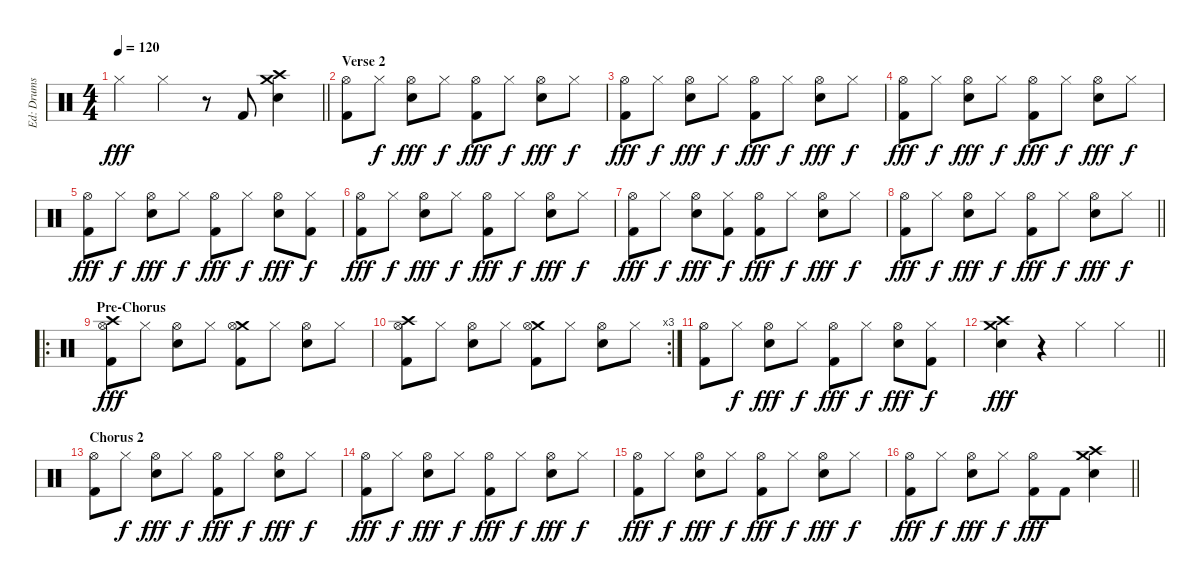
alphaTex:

\track ("Ed: Drums" "Ed: Drums") {instrument percussion}
\staff {score}
\articulation defaults
\ts (4 4)
\tempo 120
\clef neutral
\barLineRight lightlight
\ks c "Hi-Hat (closed)".4{dy fff} "Hi-Hat (closed)".4
r.8 "Kick (hit) 2".8 ("Crash medium (hit)" "Crash high (hit)" "Snare (hit) 2").4 |
\section ("" "Verse 2")
("Hi-Hat (open)" "Kick (hit) 2").8 "Hi-Hat (closed)".8{dy f} ("Hi-Hat (open)" "Electric Snare (hit)").8{dy fff} "Hi-Hat (closed)".8{dy f} ("Hi-Hat (open)" "Kick (hit) 2").8{dy fff} "Hi-Hat (closed)".8{dy f} ("Hi-Hat (open)" "Electric Snare (hit)").8{dy fff} "Hi-Hat (closed)".8{dy f} |
("Hi-Hat (open)" "Kick (hit) 2").8{dy fff} "Hi-Hat (closed)".8{dy f} ("Hi-Hat (open)" "Electric Snare (hit)").8{dy fff} "Hi-Hat (closed)".8{dy f} ("Hi-Hat (open)" "Kick (hit) 2").8{dy fff} "Hi-Hat (closed)".8{dy f} ("Hi-Hat (open)" "Electric Snare (hit)").8{dy fff} "Hi-Hat (closed)".8{dy f} |
("Hi-Hat (open)" "Kick (hit) 2").8{dy fff} "Hi-Hat (closed)".8{dy f} ("Hi-Hat (open)" "Electric Snare (hit)").8{dy fff} "Hi-Hat (closed)".8{dy f} ("Hi-Hat (open)" "Kick (hit) 2").8{dy fff} "Hi-Hat (closed)".8{dy f} ("Hi-Hat (open)" "Electric Snare (hit)").8{dy fff} "Hi-Hat (closed)".8{dy f} |
("Hi-Hat (open)" "Kick (hit) 2").8{dy fff} "Hi-Hat (closed)".8{dy f} ("Hi-Hat (open)" "Electric Snare (hit)").8{dy fff} "Hi-Hat (closed)".8{dy f} ("Hi-Hat (open)" "Kick (hit) 2").8{dy fff} "Hi-Hat (closed)".8{dy f} ("Hi-Hat (open)" "Electric Snare (hit)").8{dy fff} ("Hi-Hat (closed)" "Kick (hit) 2").8{dy f} |
("Hi-Hat (open)" "Kick (hit) 2").8{dy fff} "Hi-Hat (closed)".8{dy f} ("Hi-Hat (open)" "Electric Snare (hit)").8{dy fff} "Hi-Hat (closed)".8{dy f} ("Hi-Hat (open)" "Kick (hit) 2").8{dy fff} "Hi-Hat (closed)".8{dy f} ("Hi-Hat (open)" "Electric Snare (hit)").8{dy fff} "Hi-Hat (closed)".8{dy f} |
("Hi-Hat (open)" "Kick (hit) 2").8{dy fff} "Hi-Hat (closed)".8{dy f} ("Hi-Hat (open)" "Electric Snare (hit)").8{dy fff} ("Hi-Hat (closed)" "Kick (hit) 2").8{dy f} ("Hi-Hat (open)" "Kick (hit) 2").8{dy fff} "Hi-Hat (closed)".8{dy f} ("Hi-Hat (open)" "Electric Snare (hit)").8{dy fff} "Hi-Hat (closed)".8{dy f} |
\barLineRight lightlight
("Hi-Hat (open)" "Kick (hit) 2").8{dy fff} "Hi-Hat (closed)".8{dy f} ("Hi-Hat (open)" "Electric Snare (hit)").8{dy fff} "Hi-Hat (closed)".8{dy f} ("Hi-Hat (open)" "Kick (hit) 2").8{dy fff} "Hi-Hat (closed)".8{dy f} ("Hi-Hat (open)" "Electric Snare (hit)").8{dy fff} "Hi-Hat (closed)".8{dy f} |
\ro
\section ("" "Pre-Chorus")
("Crash high (hit)" "Hi-Hat (open)" "Kick (hit) 2").8{dy fff} "Hi-Hat (closed)".8 ("Hi-Hat (open)" "Electric Snare (hit)").8 "Hi-Hat (closed)".8 ("Crash medium (hit)" "Hi-Hat (open)" "Kick (hit) 2").8 "Hi-Hat (closed)".8 ("Hi-Hat (open)" "Electric Snare (hit)").8 "Hi-Hat (closed)".8 |
\rc 3
("Crash high (hit)" "Hi-Hat (open)" "Kick (hit) 2").8 "Hi-Hat (closed)".8 ("Hi-Hat (open)" "Electric Snare (hit)").8 "Hi-Hat (closed)".8 ("Crash medium (hit)" "Hi-Hat (open)" "Kick (hit) 2").8 "Hi-Hat (closed)".8 ("Hi-Hat (open)" "Electric Snare (hit)").8 "Hi-Hat (closed)".8 |
("Hi-Hat (open)" "Kick (hit) 2").8 "Hi-Hat (closed)".8{dy f} ("Hi-Hat (open)" "Electric Snare (hit)").8{dy fff} "Hi-Hat (closed)".8{dy f} ("Hi-Hat (open)" "Kick (hit) 2").8{dy fff} "Hi-Hat (closed)".8{dy f} ("Hi-Hat (open)" "Electric Snare (hit)").8{dy fff} ("Hi-Hat (closed)" "Kick (hit) 2").8{dy f} |
\barLineRight lightlight
("Crash high (hit)" "Crash medium (hit)" "Electric Snare (hit)").4{dy fff} r.4 "Hi-Hat (closed)".4 "Hi-Hat (closed)".4 |
\section ("" "Chorus 2")
("Hi-Hat (open)" "Kick (hit) 2").8 "Hi-Hat (closed)".8{dy f} ("Hi-Hat (open)" "Electric Snare (hit)").8{dy fff} "Hi-Hat (closed)".8{dy f} ("Hi-Hat (open)" "Kick (hit) 2").8{dy fff} "Hi-Hat (closed)".8{dy f} ("Hi-Hat (open)" "Electric Snare (hit)").8{dy fff} "Hi-Hat (closed)".8{dy f} |
("Hi-Hat (open)" "Kick (hit) 2").8{dy fff} "Hi-Hat (closed)".8{dy f} ("Hi-Hat (open)" "Electric Snare (hit)").8{dy fff} "Hi-Hat (closed)".8{dy f} ("Hi-Hat (open)" "Kick (hit) 2").8{dy fff} "Hi-Hat (closed)".8{dy f} ("Hi-Hat (open)" "Electric Snare (hit)").8{dy fff} "Hi-Hat (closed)".8{dy f} |
("Hi-Hat (open)" "Kick (hit) 2").8{dy fff} "Hi-Hat (closed)".8{dy f} ("Hi-Hat (open)" "Electric Snare (hit)").8{dy fff} "Hi-Hat (closed)".8{dy f} ("Hi-Hat (open)" "Kick (hit) 2").8{dy fff} "Hi-Hat (closed)".8{dy f} ("Hi-Hat (open)" "Electric Snare (hit)").8{dy fff} "Hi-Hat (closed)".8{dy f} |
\barLineRight lightlight
("Hi-Hat (open)" "Kick (hit) 2").8{dy fff} "Hi-Hat (closed)".8{dy f} ("Hi-Hat (open)" "Electric Snare (hit)").8{dy fff} "Hi-Hat (closed)".8{dy f} ("Hi-Hat (open)" "Kick (hit) 2").8{dy fff} "Kick (hit) 2".8 ("Crash high (hit)" "Crash medium (hit)" "Electric Snare (hit)").4
